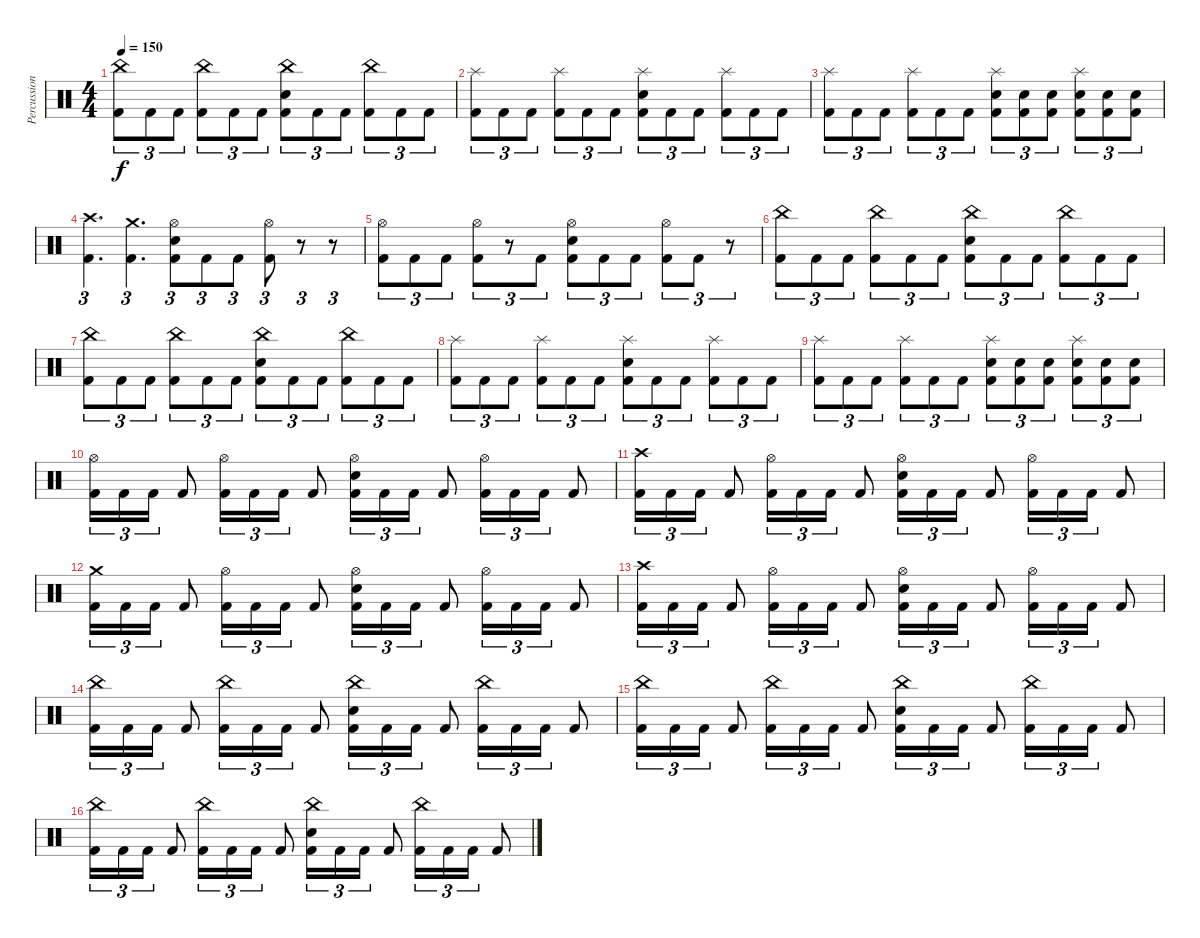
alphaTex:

\track ("Percussion" "Percussion") {instrument percussion}
\staff {score}
\articulation defaults
\ts (4 4)
\tempo 150
\clef neutral
\ks c
("China (hit)" "Kick (hit) 2").8{tu (3 2) dy f} "Kick (hit) 2".8{tu (3 2)} "Kick (hit) 2".8{tu (3 2)} ("China (hit)" "Kick (hit) 2").8{tu (3 2)} "Kick (hit) 2".8{tu (3 2)} "Kick (hit) 2".8{tu (3 2)} ("China (hit)" "Snare (hit) 2" "Kick (hit) 2").8{tu (3 2)} "Kick (hit) 2".8{tu (3 2)} "Kick (hit) 2".8{tu (3 2)} ("China (hit)" "Kick (hit) 2").8{tu (3 2)} "Kick (hit) 2".8{tu (3 2)} "Kick (hit) 2".8{tu (3 2)} |
("Splash (hit)" "Kick (hit) 2").8{tu (3 2)} "Kick (hit) 2".8{tu (3 2)} "Kick (hit) 2".8{tu (3 2)} ("Splash (hit)" "Kick (hit) 2").8{tu (3 2)} "Kick (hit) 2".8{tu (3 2)} "Kick (hit) 2".8{tu (3 2)} ("Splash (hit)" "Snare (hit) 2" "Kick (hit) 2").8{tu (3 2)} "Kick (hit) 2".8{tu (3 2)} "Kick (hit) 2".8{tu (3 2)} ("Splash (hit)" "Kick (hit) 2").8{tu (3 2)} "Kick (hit) 2".8{tu (3 2)} "Kick (hit) 2".8{tu (3 2)} |
("Splash (hit)" "Kick (hit) 2").8{tu (3 2)} "Kick (hit) 2".8{tu (3 2)} "Kick (hit) 2".8{tu (3 2)} ("Splash (hit)" "Kick (hit) 2").8{tu (3 2)} "Kick (hit) 2".8{tu (3 2)} "Kick (hit) 2".8{tu (3 2)} ("Splash (hit)" "Snare (hit) 2" "Kick (hit) 2").8{tu (3 2)} ("Snare (hit) 2" "Kick (hit) 2").8{tu (3 2)} ("Snare (hit) 2" "Kick (hit) 2").8{tu (3 2)} ("Splash (hit)" "Snare (hit) 2" "Kick (hit) 2").8{tu (3 2)} ("Snare (hit) 2" "Kick (hit) 2").8{tu (3 2)} ("Snare (hit) 2" "Kick (hit) 2").8{tu (3 2)} |
("Crash high (hit)" "Kick (hit) 2").4{d tu (3 2)} ("Crash medium (hit)" "Kick (hit) 2").4{d tu (3 2)} ("Hi-Hat (open)" "Snare (hit) 2" "Kick (hit) 2").8{tu (3 2)} "Kick (hit) 2".8{tu (3 2)} "Kick (hit) 2".8{tu (3 2)} ("Hi-Hat (open)" "Kick (hit) 2").8{tu (3 2)} r.8{tu (3 2)} r.8{tu (3 2)} |
("Hi-Hat (open)" "Kick (hit) 2").8{tu (3 2)} "Kick (hit) 2".8{tu (3 2)} "Kick (hit) 2".8{tu (3 2)} ("Hi-Hat (open)" "Kick (hit) 2").8{tu (3 2)} r.8{tu (3 2)} "Kick (hit) 2".8{tu (3 2)} ("Hi-Hat (open)" "Snare (hit) 2" "Kick (hit) 2").8{tu (3 2)} "Kick (hit) 2".8{tu (3 2)} "Kick (hit) 2".8{tu (3 2)} ("Hi-Hat (open)" "Kick (hit) 2").8{tu (3 2)} "Kick (hit) 2".8{tu (3 2)} r.8{tu (3 2)} |
("China (hit)" "Kick (hit) 2").8{tu (3 2)} "Kick (hit) 2".8{tu (3 2)} "Kick (hit) 2".8{tu (3 2)} ("China (hit)" "Kick (hit) 2").8{tu (3 2)} "Kick (hit) 2".8{tu (3 2)} "Kick (hit) 2".8{tu (3 2)} ("China (hit)" "Snare (hit) 2" "Kick (hit) 2").8{tu (3 2)} "Kick (hit) 2".8{tu (3 2)} "Kick (hit) 2".8{tu (3 2)} ("China (hit)" "Kick (hit) 2").8{tu (3 2)} "Kick (hit) 2".8{tu (3 2)} "Kick (hit) 2".8{tu (3 2)} |
("China (hit)" "Kick (hit) 2").8{tu (3 2)} "Kick (hit) 2".8{tu (3 2)} "Kick (hit) 2".8{tu (3 2)} ("China (hit)" "Kick (hit) 2").8{tu (3 2)} "Kick (hit) 2".8{tu (3 2)} "Kick (hit) 2".8{tu (3 2)} ("China (hit)" "Snare (hit) 2" "Kick (hit) 2").8{tu (3 2)} "Kick (hit) 2".8{tu (3 2)} "Kick (hit) 2".8{tu (3 2)} ("China (hit)" "Kick (hit) 2").8{tu (3 2)} "Kick (hit) 2".8{tu (3 2)} "Kick (hit) 2".8{tu (3 2)} |
("Splash (hit)" "Kick (hit) 2").8{tu (3 2)} "Kick (hit) 2".8{tu (3 2)} "Kick (hit) 2".8{tu (3 2)} ("Splash (hit)" "Kick (hit) 2").8{tu (3 2)} "Kick (hit) 2".8{tu (3 2)} "Kick (hit) 2".8{tu (3 2)} ("Splash (hit)" "Snare (hit) 2" "Kick (hit) 2").8{tu (3 2)} "Kick (hit) 2".8{tu (3 2)} "Kick (hit) 2".8{tu (3 2)} ("Splash (hit)" "Kick (hit) 2").8{tu (3 2)} "Kick (hit) 2".8{tu (3 2)} "Kick (hit) 2".8{tu (3 2)} |
("Splash (hit)" "Kick (hit) 2").8{tu (3 2)} "Kick (hit) 2".8{tu (3 2)} "Kick (hit) 2".8{tu (3 2)} ("Splash (hit)" "Kick (hit) 2").8{tu (3 2)} "Kick (hit) 2".8{tu (3 2)} "Kick (hit) 2".8{tu (3 2)} ("Splash (hit)" "Snare (hit) 2" "Kick (hit) 2").8{tu (3 2)} ("Snare (hit) 2" "Kick (hit) 2").8{tu (3 2)} ("Snare (hit) 2" "Kick (hit) 2").8{tu (3 2)} ("Splash (hit)" "Snare (hit) 2" "Kick (hit) 2").8{tu (3 2)} ("Snare (hit) 2" "Kick (hit) 2").8{tu (3 2)} ("Snare (hit) 2" "Kick (hit) 2").8{tu (3 2)} |
("Hi-Hat (open)" "Kick (hit) 2").16{tu (3 2)} "Kick (hit) 2".16{tu (3 2)} "Kick (hit) 2".16{tu (3 2)} "Kick (hit) 2".8 ("Hi-Hat (open)" "Kick (hit) 2").16{tu (3 2)} "Kick (hit) 2".16{tu (3 2)} "Kick (hit) 2".16{tu (3 2)} "Kick (hit) 2".8 ("Hi-Hat (open)" "Snare (hit) 2" "Kick (hit) 2").16{tu (3 2)} "Kick (hit) 2".16{tu (3 2)} "Kick (hit) 2".16{tu (3 2)} "Kick (hit) 2".8 ("Hi-Hat (open)" "Kick (hit) 2").16{tu (3 2)} "Kick (hit) 2".16{tu (3 2)} "Kick (hit) 2".16{tu (3 2)} "Kick (hit) 2".8 |
("Crash high (hit)" "Kick (hit) 2").16{tu (3 2)} "Kick (hit) 2".16{tu (3 2)} "Kick (hit) 2".16{tu (3 2)} "Kick (hit) 2".8 ("Hi-Hat (open)" "Kick (hit) 2").16{tu (3 2)} "Kick (hit) 2".16{tu (3 2)} "Kick (hit) 2".16{tu (3 2)} "Kick (hit) 2".8 ("Hi-Hat (open)" "Snare (hit) 2" "Kick (hit) 2").16{tu (3 2)} "Kick (hit) 2".16{tu (3 2)} "Kick (hit) 2".16{tu (3 2)} "Kick (hit) 2".8 ("Hi-Hat (open)" "Kick (hit) 2").16{tu (3 2)} "Kick (hit) 2".16{tu (3 2)} "Kick (hit) 2".16{tu (3 2)} "Kick (hit) 2".8 |
("Crash medium (hit)" "Kick (hit) 2").16{tu (3 2)} "Kick (hit) 2".16{tu (3 2)} "Kick (hit) 2".16{tu (3 2)} "Kick (hit) 2".8 ("Hi-Hat (open)" "Kick (hit) 2").16{tu (3 2)} "Kick (hit) 2".16{tu (3 2)} "Kick (hit) 2".16{tu (3 2)} "Kick (hit) 2".8 ("Hi-Hat (open)" "Snare (hit) 2" "Kick (hit) 2").16{tu (3 2)} "Kick (hit) 2".16{tu (3 2)} "Kick (hit) 2".16{tu (3 2)} "Kick (hit) 2".8 ("Hi-Hat (open)" "Kick (hit) 2").16{tu (3 2)} "Kick (hit) 2".16{tu (3 2)} "Kick (hit) 2".16{tu (3 2)} "Kick (hit) 2".8 |
("Crash high (hit)" "Kick (hit) 2").16{tu (3 2)} "Kick (hit) 2".16{tu (3 2)} "Kick (hit) 2".16{tu (3 2)} "Kick (hit) 2".8 ("Hi-Hat (open)" "Kick (hit) 2").16{tu (3 2)} "Kick (hit) 2".16{tu (3 2)} "Kick (hit) 2".16{tu (3 2)} "Kick (hit) 2".8 ("Hi-Hat (open)" "Snare (hit) 2" "Kick (hit) 2").16{tu (3 2)} "Kick (hit) 2".16{tu (3 2)} "Kick (hit) 2".16{tu (3 2)} "Kick (hit) 2".8 ("Hi-Hat (open)" "Kick (hit) 2").16{tu (3 2)} "Kick (hit) 2".16{tu (3 2)} "Kick (hit) 2".16{tu (3 2)} "Kick (hit) 2".8 |
("China (hit)" "Kick (hit) 2").16{tu (3 2)} "Kick (hit) 2".16{tu (3 2)} "Kick (hit) 2".16{tu (3 2)} "Kick (hit) 2".8 ("China (hit)" "Kick (hit) 2").16{tu (3 2)} "Kick (hit) 2".16{tu (3 2)} "Kick (hit) 2".16{tu (3 2)} "Kick (hit) 2".8 ("China (hit)" "Snare (hit) 2" "Kick (hit) 2").16{tu (3 2)} "Kick (hit) 2".16{tu (3 2)} "Kick (hit) 2".16{tu (3 2)} "Kick (hit) 2".8 ("China (hit)" "Kick (hit) 2").16{tu (3 2)} "Kick (hit) 2".16{tu (3 2)} "Kick (hit) 2".16{tu (3 2)} "Kick (hit) 2".8 |
("China (hit)" "Kick (hit) 2").16{tu (3 2)} "Kick (hit) 2".16{tu (3 2)} "Kick (hit) 2".16{tu (3 2)} "Kick (hit) 2".8 ("China (hit)" "Kick (hit) 2").16{tu (3 2)} "Kick (hit) 2".16{tu (3 2)} "Kick (hit) 2".16{tu (3 2)} "Kick (hit) 2".8 ("China (hit)" "Snare (hit) 2" "Kick (hit) 2").16{tu (3 2)} "Kick (hit) 2".16{tu (3 2)} "Kick (hit) 2".16{tu (3 2)} "Kick (hit) 2".8 ("China (hit)" "Kick (hit) 2").16{tu (3 2)} "Kick (hit) 2".16{tu (3 2)} "Kick (hit) 2".16{tu (3 2)} "Kick (hit) 2".8 |
("China (hit)" "Kick (hit) 2").16{tu (3 2)} "Kick (hit) 2".16{tu (3 2)} "Kick (hit) 2".16{tu (3 2)} "Kick (hit) 2".8 ("China (hit)" "Kick (hit) 2").16{tu (3 2)} "Kick (hit) 2".16{tu (3 2)} "Kick (hit) 2".16{tu (3 2)} "Kick (hit) 2".8 ("China (hit)" "Snare (hit) 2" "Kick (hit) 2").16{tu (3 2)} "Kick (hit) 2".16{tu (3 2)} "Kick (hit) 2".16{tu (3 2)} "Kick (hit) 2".8 ("China (hit)" "Kick (hit) 2").16{tu (3 2)} "Kick (hit) 2".16{tu (3 2)} "Kick (hit) 2".16{tu (3 2)} "Kick (hit) 2".8
